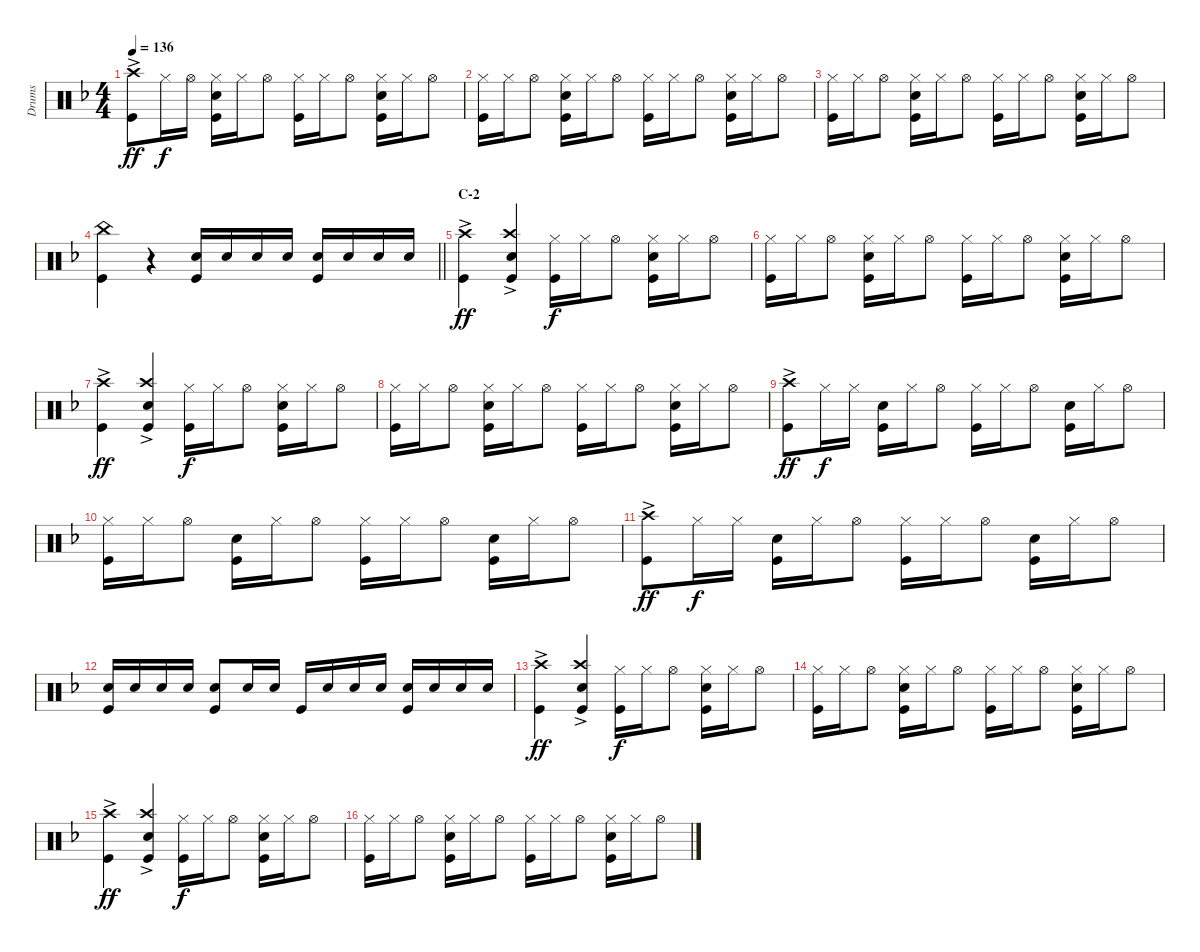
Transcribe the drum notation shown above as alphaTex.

\track ("Drums" "Drums") {instrument percussion}
\staff {score}
\articulation defaults
\ts (4 4)
\tempo 136
\clef neutral
\ks dminor
("Kick (hit)" "Crash high (hit)"{ac}).8{dy ff} "Hi-Hat (closed)".16{dy f} "Hi-Hat (open)".16 ("Kick (hit)" "Hi-Hat (closed)" "Snare (hit) 2").16 "Hi-Hat (closed)".16 "Hi-Hat (open)".8 ("Kick (hit)" "Hi-Hat (closed)").16 "Hi-Hat (closed)".16 "Hi-Hat (open)".8 ("Kick (hit)" "Hi-Hat (closed)" "Snare (hit) 2").16 "Hi-Hat (closed)".16 "Hi-Hat (open)".8 |
("Kick (hit)" "Hi-Hat (closed)").16 "Hi-Hat (closed)".16 "Hi-Hat (open)".8 ("Kick (hit)" "Hi-Hat (closed)" "Snare (hit) 2").16 "Hi-Hat (closed)".16 "Hi-Hat (open)".8 ("Kick (hit)" "Hi-Hat (closed)").16 "Hi-Hat (closed)".16 "Hi-Hat (open)".8 ("Kick (hit)" "Hi-Hat (closed)" "Snare (hit) 2").16 "Hi-Hat (closed)".16 "Hi-Hat (open)".8 |
("Kick (hit)" "Hi-Hat (closed)").16 "Hi-Hat (closed)".16 "Hi-Hat (open)".8 ("Kick (hit)" "Hi-Hat (closed)" "Snare (hit) 2").16 "Hi-Hat (closed)".16 "Hi-Hat (open)".8 ("Kick (hit)" "Hi-Hat (closed)").16 "Hi-Hat (closed)".16 "Hi-Hat (open)".8 ("Kick (hit)" "Hi-Hat (closed)" "Snare (hit) 2").16 "Hi-Hat (closed)".16 "Hi-Hat (open)".8 |
\barLineRight lightlight
("China (hit)" "Kick (hit)").4 r.4 ("Snare (hit) 2" "Kick (hit)").16 "Snare (hit) 2".16 "Snare (hit) 2".16 "Snare (hit) 2".16 ("Snare (hit) 2" "Kick (hit)").16 "Snare (hit) 2".16 "Snare (hit) 2".16 "Snare (hit) 2".16 |
\section ("" "C-2")
("Crash high (hit)" "Kick (hit)"{ac}).4{dy ff} ("Crash high (hit)" "Snare (hit) 2" "Kick (hit)"{ac}).4 ("Kick (hit)" "Hi-Hat (closed)").16{dy f} "Hi-Hat (closed)".16 "Hi-Hat (open)".8 ("Kick (hit)" "Hi-Hat (closed)" "Snare (hit) 2").16 "Hi-Hat (closed)".16 "Hi-Hat (open)".8 |
("Kick (hit)" "Hi-Hat (closed)").16 "Hi-Hat (closed)".16 "Hi-Hat (open)".8 ("Kick (hit)" "Hi-Hat (closed)" "Snare (hit) 2").16 "Hi-Hat (closed)".16 "Hi-Hat (open)".8 ("Kick (hit)" "Hi-Hat (closed)").16 "Hi-Hat (closed)".16 "Hi-Hat (open)".8 ("Kick (hit)" "Hi-Hat (closed)" "Snare (hit) 2").16 "Hi-Hat (closed)".16 "Hi-Hat (open)".8 |
("Crash high (hit)" "Kick (hit)"{ac}).4{dy ff} ("Crash high (hit)" "Snare (hit) 2" "Kick (hit)"{ac}).4 ("Kick (hit)" "Hi-Hat (closed)").16{dy f} "Hi-Hat (closed)".16 "Hi-Hat (open)".8 ("Kick (hit)" "Hi-Hat (closed)" "Snare (hit) 2").16 "Hi-Hat (closed)".16 "Hi-Hat (open)".8 |
("Kick (hit)" "Hi-Hat (closed)").16 "Hi-Hat (closed)".16 "Hi-Hat (open)".8 ("Kick (hit)" "Hi-Hat (closed)" "Snare (hit) 2").16 "Hi-Hat (closed)".16 "Hi-Hat (open)".8 ("Kick (hit)" "Hi-Hat (closed)").16 "Hi-Hat (closed)".16 "Hi-Hat (open)".8 ("Kick (hit)" "Hi-Hat (closed)" "Snare (hit) 2").16 "Hi-Hat (closed)".16 "Hi-Hat (open)".8 |
("Crash high (hit)"{ac} "Kick (hit)").8{dy ff} "Hi-Hat (closed)".16{dy f} "Hi-Hat (closed)".16 ("Snare (hit) 2" "Kick (hit)").16 "Hi-Hat (closed)".16 "Hi-Hat (open)".8 ("Hi-Hat (closed)" "Kick (hit)").16 "Hi-Hat (closed)".16 "Hi-Hat (open)".8 ("Kick (hit)" "Snare (hit) 2").16 "Hi-Hat (closed)".16 "Hi-Hat (open)".8 |
("Kick (hit)" "Hi-Hat (closed)").16 "Hi-Hat (closed)".16 "Hi-Hat (open)".8 ("Kick (hit)" "Snare (hit) 2").16 "Hi-Hat (closed)".16 "Hi-Hat (open)".8 ("Kick (hit)" "Hi-Hat (closed)").16 "Hi-Hat (closed)".16 "Hi-Hat (open)".8 ("Kick (hit)" "Snare (hit) 2").16 "Hi-Hat (closed)".16 "Hi-Hat (open)".8 |
("Crash high (hit)"{ac} "Kick (hit)").8{dy ff} "Hi-Hat (closed)".16{dy f} "Hi-Hat (closed)".16 ("Snare (hit) 2" "Kick (hit)").16 "Hi-Hat (closed)".16 "Hi-Hat (open)".8 ("Kick (hit)" "Hi-Hat (closed)").16 "Hi-Hat (closed)".16 "Hi-Hat (open)".8 ("Kick (hit)" "Snare (hit) 2").16 "Hi-Hat (closed)".16 "Hi-Hat (open)".8 |
("Snare (hit) 2" "Kick (hit)").16 "Snare (hit) 2".16 "Snare (hit) 2".16 "Snare (hit) 2".16 ("Kick (hit)" "Snare (hit) 2").8 "Snare (hit) 2".16 "Snare (hit) 2".16 "Kick (hit)".16 "Snare (hit) 2".16 "Snare (hit) 2".16 "Snare (hit) 2".16 ("Snare (hit) 2" "Kick (hit)").16 "Snare (hit) 2".16 "Snare (hit) 2".16 "Snare (hit) 2".16 |
("Crash high (hit)" "Kick (hit)"{ac}).4{dy ff} ("Crash high (hit)" "Snare (hit) 2" "Kick (hit)"{ac}).4 ("Kick (hit)" "Hi-Hat (closed)").16{dy f} "Hi-Hat (closed)".16 "Hi-Hat (open)".8 ("Kick (hit)" "Hi-Hat (closed)" "Snare (hit) 2").16 "Hi-Hat (closed)".16 "Hi-Hat (open)".8 |
("Kick (hit)" "Hi-Hat (closed)").16 "Hi-Hat (closed)".16 "Hi-Hat (open)".8 ("Kick (hit)" "Hi-Hat (closed)" "Snare (hit) 2").16 "Hi-Hat (closed)".16 "Hi-Hat (open)".8 ("Kick (hit)" "Hi-Hat (closed)").16 "Hi-Hat (closed)".16 "Hi-Hat (open)".8 ("Kick (hit)" "Hi-Hat (closed)" "Snare (hit) 2").16 "Hi-Hat (closed)".16 "Hi-Hat (open)".8 |
("Crash high (hit)" "Kick (hit)"{ac}).4{dy ff} ("Crash high (hit)" "Snare (hit) 2" "Kick (hit)"{ac}).4 ("Kick (hit)" "Hi-Hat (closed)").16{dy f} "Hi-Hat (closed)".16 "Hi-Hat (open)".8 ("Kick (hit)" "Hi-Hat (closed)" "Snare (hit) 2").16 "Hi-Hat (closed)".16 "Hi-Hat (open)".8 |
("Kick (hit)" "Hi-Hat (closed)").16 "Hi-Hat (closed)".16 "Hi-Hat (open)".8 ("Kick (hit)" "Hi-Hat (closed)" "Snare (hit) 2").16 "Hi-Hat (closed)".16 "Hi-Hat (open)".8 ("Kick (hit)" "Hi-Hat (closed)").16 "Hi-Hat (closed)".16 "Hi-Hat (open)".8 ("Kick (hit)" "Hi-Hat (closed)" "Snare (hit) 2").16 "Hi-Hat (closed)".16 "Hi-Hat (open)".8
